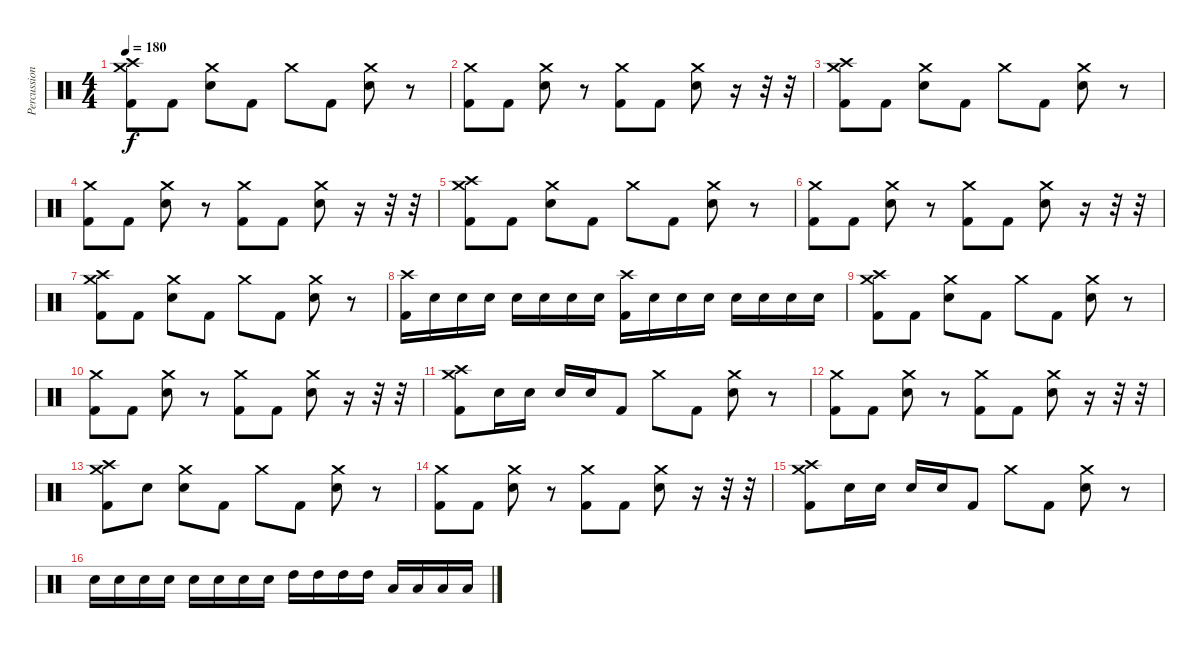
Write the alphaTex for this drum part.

\track ("Percussion" "Percussion") {instrument percussion}
\staff {score}
\articulation defaults
\ts (4 4)
\tempo 180
\clef neutral
\ks c
("Crash medium (hit)" "Crash high (hit)" "Kick (hit) 2").8{dy f} "Kick (hit) 2".8 ("Crash medium (hit)" "Electric Snare (hit)").8 "Kick (hit) 2".8 "Crash medium (hit)".8 "Kick (hit) 2".8 ("Crash medium (hit)" "Electric Snare (hit)").8 r.8 |
("Crash medium (hit)" "Kick (hit) 2").8 "Kick (hit) 2".8 ("Crash medium (hit)" "Electric Snare (hit)").8 r.8 ("Crash medium (hit)" "Kick (hit) 2").8 "Kick (hit) 2".8 ("Crash medium (hit)" "Electric Snare (hit)").8 r.16 r.32 r.32 |
("Crash medium (hit)" "Crash high (hit)" "Kick (hit) 2").8 "Kick (hit) 2".8 ("Crash medium (hit)" "Electric Snare (hit)").8 "Kick (hit) 2".8 "Crash medium (hit)".8 "Kick (hit) 2".8 ("Crash medium (hit)" "Electric Snare (hit)").8 r.8 |
("Crash medium (hit)" "Kick (hit) 2").8 "Kick (hit) 2".8 ("Crash medium (hit)" "Electric Snare (hit)").8 r.8 ("Crash medium (hit)" "Kick (hit) 2").8 "Kick (hit) 2".8 ("Crash medium (hit)" "Electric Snare (hit)").8 r.16 r.32 r.32 |
("Crash medium (hit)" "Crash high (hit)" "Kick (hit) 2").8 "Kick (hit) 2".8 ("Crash medium (hit)" "Electric Snare (hit)").8 "Kick (hit) 2".8 "Crash medium (hit)".8 "Kick (hit) 2".8 ("Crash medium (hit)" "Electric Snare (hit)").8 r.8 |
("Crash medium (hit)" "Kick (hit) 2").8 "Kick (hit) 2".8 ("Crash medium (hit)" "Electric Snare (hit)").8 r.8 ("Crash medium (hit)" "Kick (hit) 2").8 "Kick (hit) 2".8 ("Crash medium (hit)" "Electric Snare (hit)").8 r.16 r.32 r.32 |
("Crash medium (hit)" "Crash high (hit)" "Kick (hit) 2").8 "Kick (hit) 2".8 ("Crash medium (hit)" "Electric Snare (hit)").8 "Kick (hit) 2".8 "Crash medium (hit)".8 "Kick (hit) 2".8 ("Crash medium (hit)" "Electric Snare (hit)").8 r.8 |
("Crash high (hit)" "Kick (hit) 2").16 "Electric Snare (hit)".16 "Electric Snare (hit)".16 "Electric Snare (hit)".16 "Electric Snare (hit)".16 "Electric Snare (hit)".16 "Electric Snare (hit)".16 "Electric Snare (hit)".16 ("Crash high (hit)" "Kick (hit) 2").16 "Electric Snare (hit)".16 "Electric Snare (hit)".16 "Electric Snare (hit)".16 "Electric Snare (hit)".16 "Electric Snare (hit)".16 "Electric Snare (hit)".16 "Electric Snare (hit)".16 |
("Crash medium (hit)" "Crash high (hit)" "Kick (hit) 2").8 "Kick (hit) 2".8 ("Crash medium (hit)" "Electric Snare (hit)").8 "Kick (hit) 2".8 "Crash medium (hit)".8 "Kick (hit) 2".8 ("Crash medium (hit)" "Electric Snare (hit)").8 r.8 |
("Crash medium (hit)" "Kick (hit) 2").8 "Kick (hit) 2".8 ("Crash medium (hit)" "Electric Snare (hit)").8 r.8 ("Crash medium (hit)" "Kick (hit) 2").8 "Kick (hit) 2".8 ("Crash medium (hit)" "Electric Snare (hit)").8 r.16 r.32 r.32 |
("Crash medium (hit)" "Crash high (hit)" "Kick (hit) 2").8 "Electric Snare (hit)".16 "Electric Snare (hit)".16 "Electric Snare (hit)".16 "Electric Snare (hit)".16 "Kick (hit) 2".8 "Crash medium (hit)".8 "Kick (hit) 2".8 ("Crash medium (hit)" "Electric Snare (hit)").8 r.8 |
("Crash medium (hit)" "Kick (hit) 2").8 "Kick (hit) 2".8 ("Crash medium (hit)" "Electric Snare (hit)").8 r.8 ("Crash medium (hit)" "Kick (hit) 2").8 "Kick (hit) 2".8 ("Crash medium (hit)" "Electric Snare (hit)").8 r.16 r.32 r.32 |
("Crash medium (hit)" "Crash high (hit)" "Kick (hit) 2").8 "Electric Snare (hit)".8 ("Crash medium (hit)" "Electric Snare (hit)").8 "Kick (hit) 2".8 "Crash medium (hit)".8 "Kick (hit) 2".8 ("Crash medium (hit)" "Electric Snare (hit)").8 r.8 |
("Crash medium (hit)" "Kick (hit) 2").8 "Kick (hit) 2".8 ("Crash medium (hit)" "Electric Snare (hit)").8 r.8 ("Crash medium (hit)" "Kick (hit) 2").8 "Kick (hit) 2".8 ("Crash medium (hit)" "Electric Snare (hit)").8 r.16 r.32 r.32 |
("Crash medium (hit)" "Crash high (hit)" "Kick (hit) 2").8 "Electric Snare (hit)".16 "Electric Snare (hit)".16 "Electric Snare (hit)".16 "Electric Snare (hit)".16 "Kick (hit) 2".8 "Crash medium (hit)".8 "Kick (hit) 2".8 ("Crash medium (hit)" "Electric Snare (hit)").8 r.8 |
"Electric Snare (hit)".16 "Electric Snare (hit)".16 "Electric Snare (hit)".16 "Electric Snare (hit)".16 "Electric Snare (hit)".16 "Electric Snare (hit)".16 "Electric Snare (hit)".16 "Electric Snare (hit)".16 "High Tom (hit)".16 "High Tom (hit)".16 "High Tom (hit)".16 "High Tom (hit)".16 "Low Tom (hit)".16 "Low Tom (hit)".16 "Low Tom (hit)".16 "Low Tom (hit)".16
